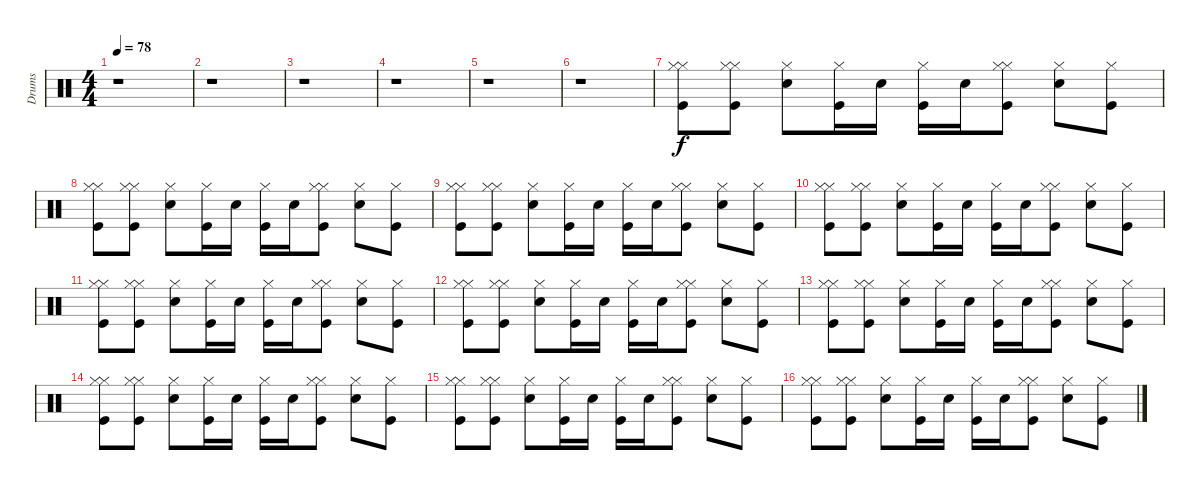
\track ("Drums" "Drums") {instrument percussion}
\staff {score}
\articulation defaults
\ts (4 4)
\tempo 78
\clef neutral
\ks c
r.1{dy f} |
r.1 |
r.1 |
r.1 |
r.1 |
r.1 |
("Hi-Hat (closed)" "Hi-Hat (closed)" "Kick (hit)").8 ("Hi-Hat (closed)" "Hi-Hat (closed)" "Kick (hit)").8 ("Snare (hit) 2" "Hi-Hat (closed)").8 ("Hi-Hat (closed)" "Kick (hit)").16 "Snare (hit) 2".16 ("Hi-Hat (closed)" "Kick (hit)").16 "Snare (hit) 2".16 ("Hi-Hat (closed)" "Hi-Hat (closed)" "Kick (hit)").8 ("Snare (hit) 2" "Hi-Hat (closed)").8 ("Hi-Hat (closed)" "Kick (hit)").8 |
("Hi-Hat (closed)" "Hi-Hat (closed)" "Kick (hit)").8 ("Hi-Hat (closed)" "Hi-Hat (closed)" "Kick (hit)").8 ("Snare (hit) 2" "Hi-Hat (closed)").8 ("Hi-Hat (closed)" "Kick (hit)").16 "Snare (hit) 2".16 ("Hi-Hat (closed)" "Kick (hit)").16 "Snare (hit) 2".16 ("Hi-Hat (closed)" "Hi-Hat (closed)" "Kick (hit)").8 ("Snare (hit) 2" "Hi-Hat (closed)").8 ("Hi-Hat (closed)" "Kick (hit)").8 |
("Hi-Hat (closed)" "Hi-Hat (closed)" "Kick (hit)").8 ("Hi-Hat (closed)" "Hi-Hat (closed)" "Kick (hit)").8 ("Snare (hit) 2" "Hi-Hat (closed)").8 ("Hi-Hat (closed)" "Kick (hit)").16 "Snare (hit) 2".16 ("Hi-Hat (closed)" "Kick (hit)").16 "Snare (hit) 2".16 ("Hi-Hat (closed)" "Hi-Hat (closed)" "Kick (hit)").8 ("Snare (hit) 2" "Hi-Hat (closed)").8 ("Hi-Hat (closed)" "Kick (hit)").8 |
("Hi-Hat (closed)" "Hi-Hat (closed)" "Kick (hit)").8 ("Hi-Hat (closed)" "Hi-Hat (closed)" "Kick (hit)").8 ("Snare (hit) 2" "Hi-Hat (closed)").8 ("Hi-Hat (closed)" "Kick (hit)").16 "Snare (hit) 2".16 ("Hi-Hat (closed)" "Kick (hit)").16 "Snare (hit) 2".16 ("Hi-Hat (closed)" "Hi-Hat (closed)" "Kick (hit)").8 ("Snare (hit) 2" "Hi-Hat (closed)").8 ("Hi-Hat (closed)" "Kick (hit)").8 |
("Hi-Hat (closed)" "Hi-Hat (closed)" "Kick (hit)").8 ("Hi-Hat (closed)" "Hi-Hat (closed)" "Kick (hit)").8 ("Snare (hit) 2" "Hi-Hat (closed)").8 ("Hi-Hat (closed)" "Kick (hit)").16 "Snare (hit) 2".16 ("Hi-Hat (closed)" "Kick (hit)").16 "Snare (hit) 2".16 ("Hi-Hat (closed)" "Hi-Hat (closed)" "Kick (hit)").8 ("Snare (hit) 2" "Hi-Hat (closed)").8 ("Hi-Hat (closed)" "Kick (hit)").8 |
("Hi-Hat (closed)" "Hi-Hat (closed)" "Kick (hit)").8 ("Hi-Hat (closed)" "Hi-Hat (closed)" "Kick (hit)").8 ("Snare (hit) 2" "Hi-Hat (closed)").8 ("Hi-Hat (closed)" "Kick (hit)").16 "Snare (hit) 2".16 ("Hi-Hat (closed)" "Kick (hit)").16 "Snare (hit) 2".16 ("Hi-Hat (closed)" "Hi-Hat (closed)" "Kick (hit)").8 ("Snare (hit) 2" "Hi-Hat (closed)").8 ("Hi-Hat (closed)" "Kick (hit)").8 |
("Hi-Hat (closed)" "Hi-Hat (closed)" "Kick (hit)").8 ("Hi-Hat (closed)" "Hi-Hat (closed)" "Kick (hit)").8 ("Snare (hit) 2" "Hi-Hat (closed)").8 ("Hi-Hat (closed)" "Kick (hit)").16 "Snare (hit) 2".16 ("Hi-Hat (closed)" "Kick (hit)").16 "Snare (hit) 2".16 ("Hi-Hat (closed)" "Hi-Hat (closed)" "Kick (hit)").8 ("Snare (hit) 2" "Hi-Hat (closed)").8 ("Hi-Hat (closed)" "Kick (hit)").8 |
("Hi-Hat (closed)" "Hi-Hat (closed)" "Kick (hit)").8 ("Hi-Hat (closed)" "Hi-Hat (closed)" "Kick (hit)").8 ("Snare (hit) 2" "Hi-Hat (closed)").8 ("Hi-Hat (closed)" "Kick (hit)").16 "Snare (hit) 2".16 ("Hi-Hat (closed)" "Kick (hit)").16 "Snare (hit) 2".16 ("Hi-Hat (closed)" "Hi-Hat (closed)" "Kick (hit)").8 ("Snare (hit) 2" "Hi-Hat (closed)").8 ("Hi-Hat (closed)" "Kick (hit)").8 |
("Hi-Hat (closed)" "Hi-Hat (closed)" "Kick (hit)").8 ("Hi-Hat (closed)" "Hi-Hat (closed)" "Kick (hit)").8 ("Snare (hit) 2" "Hi-Hat (closed)").8 ("Hi-Hat (closed)" "Kick (hit)").16 "Snare (hit) 2".16 ("Hi-Hat (closed)" "Kick (hit)").16 "Snare (hit) 2".16 ("Hi-Hat (closed)" "Hi-Hat (closed)" "Kick (hit)").8 ("Snare (hit) 2" "Hi-Hat (closed)").8 ("Hi-Hat (closed)" "Kick (hit)").8 |
("Hi-Hat (closed)" "Hi-Hat (closed)" "Kick (hit)").8 ("Hi-Hat (closed)" "Hi-Hat (closed)" "Kick (hit)").8 ("Snare (hit) 2" "Hi-Hat (closed)").8 ("Hi-Hat (closed)" "Kick (hit)").16 "Snare (hit) 2".16 ("Hi-Hat (closed)" "Kick (hit)").16 "Snare (hit) 2".16 ("Hi-Hat (closed)" "Hi-Hat (closed)" "Kick (hit)").8 ("Snare (hit) 2" "Hi-Hat (closed)").8 ("Hi-Hat (closed)" "Kick (hit)").8
